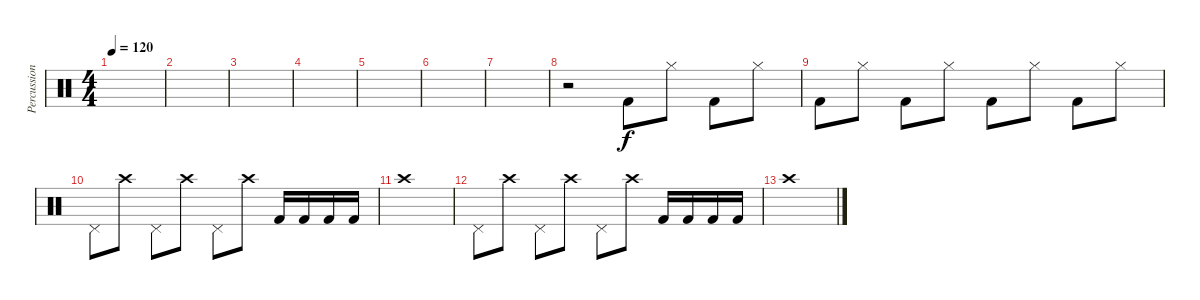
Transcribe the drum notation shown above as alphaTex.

\track ("Percussions" "Percussion") {instrument percussion}
\staff {score}
\articulation defaults
\ts (4 4)
\tempo 120
\clef neutral
\ks c
|
|
|
|
|
|
|
r.2 "Kick (hit) 2".8 "Hi-Hat (closed)".8 "Kick (hit) 2".8 "Hi-Hat (closed)".8 |
"Kick (hit) 2".8 "Hi-Hat (closed)".8 "Kick (hit) 2".8 "Hi-Hat (closed)".8 "Kick (hit) 2".8 "Hi-Hat (closed)".8 "Kick (hit) 2".8 "Hi-Hat (closed)".8 |
"Pedal Hi-Hat (hit)".8 "Crash high (hit)".8 "Pedal Hi-Hat (hit)".8 "Crash high (hit)".8 "Pedal Hi-Hat (hit)".8 "Crash high (hit)".8 "Kick (hit) 2".16 "Kick (hit) 2".16 "Kick (hit) 2".16 "Kick (hit) 2".16 |
"Crash high (hit)".1 |
"Pedal Hi-Hat (hit)".8 "Crash high (hit)".8 "Pedal Hi-Hat (hit)".8 "Crash high (hit)".8 "Pedal Hi-Hat (hit)".8 "Crash high (hit)".8 "Kick (hit) 2".16 "Kick (hit) 2".16 "Kick (hit) 2".16 "Kick (hit) 2".16 |
"Crash high (hit)".1
